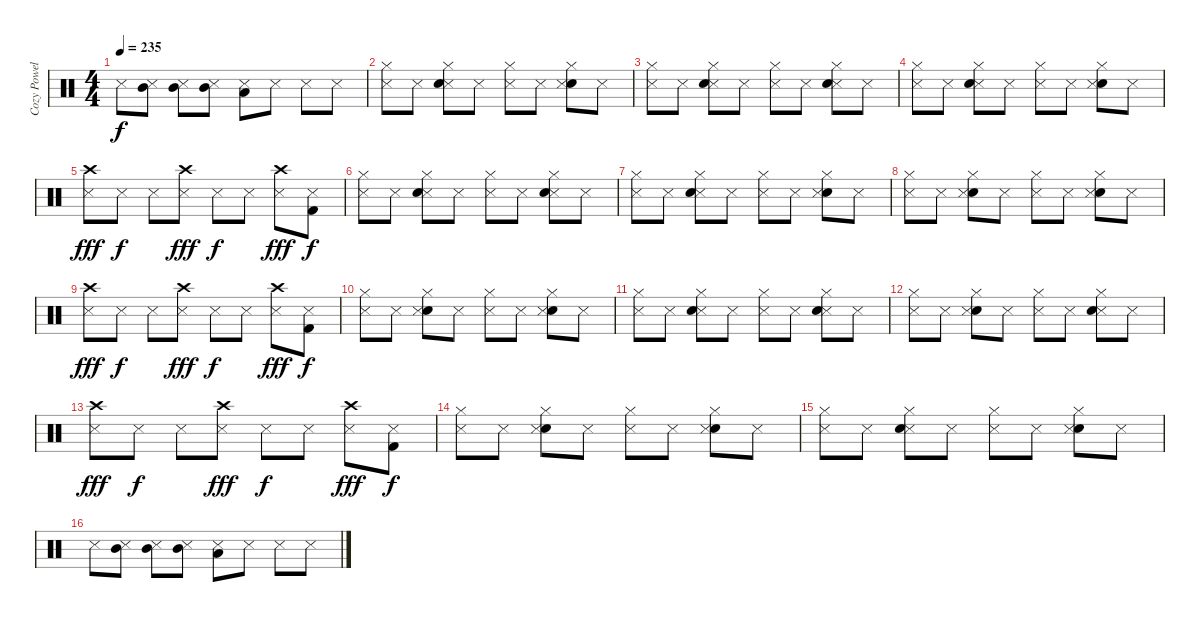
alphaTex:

\track ("Cozy Powell" "Cozy Powel") {instrument percussion}
\staff {score}
\articulation defaults
\ts (4 4)
\tempo 235
\clef neutral
\ks c "Metronome (hit)".8{dy f}
("Mid Tom (hit)" "Metronome (hit)").8 ("Metronome (hit)" "Mid Tom (hit)").8 ("Mid Tom (hit)" "Metronome (hit)").8 ("Metronome (hit)" "Low Tom (hit)").8 "Metronome (hit)".8 "Metronome (hit)".8 "Metronome (hit)".8 |
("Hi-Hat (closed)" "Metronome (hit)").8 "Metronome (hit)".8 ("Metronome (hit)" "Hi-Hat (closed)" "Electric Snare (hit)").8 "Metronome (hit)".8 ("Hi-Hat (closed)" "Metronome (hit)").8 "Metronome (hit)".8 ("Hi-Hat (closed)" "Electric Snare (hit)" "Metronome (hit)").8 "Metronome (hit)".8 |
("Metronome (hit)" "Hi-Hat (closed)").8 "Metronome (hit)".8 ("Hi-Hat (closed)" "Metronome (hit)" "Electric Snare (hit)").8 "Metronome (hit)".8 ("Metronome (hit)" "Hi-Hat (closed)").8 "Metronome (hit)".8 ("Metronome (hit)" "Hi-Hat (closed)" "Electric Snare (hit)").8 "Metronome (hit)".8 |
("Hi-Hat (closed)" "Metronome (hit)").8 "Metronome (hit)".8 ("Metronome (hit)" "Electric Snare (hit)" "Hi-Hat (closed)").8 "Metronome (hit)".8 ("Hi-Hat (closed)" "Metronome (hit)").8 "Metronome (hit)".8 ("Electric Snare (hit)" "Hi-Hat (closed)" "Metronome (hit)").8 "Metronome (hit)".8 |
("Crash high (hit)" "Metronome (hit)").8{dy fff} "Metronome (hit)".8{dy f} "Metronome (hit)".8 ("Metronome (hit)" "Crash high (hit)").8{dy fff} "Metronome (hit)".8{dy f} "Metronome (hit)".8 ("Metronome (hit)" "Crash high (hit)").8{dy fff} ("Kick (hit) 2" "Metronome (hit)").8{dy f} |
("Hi-Hat (closed)" "Metronome (hit)").8 "Metronome (hit)".8 ("Metronome (hit)" "Hi-Hat (closed)" "Electric Snare (hit)").8 "Metronome (hit)".8 ("Metronome (hit)" "Hi-Hat (closed)").8 "Metronome (hit)".8 ("Metronome (hit)" "Electric Snare (hit)" "Hi-Hat (closed)").8 "Metronome (hit)".8 |
("Hi-Hat (closed)" "Metronome (hit)").8 "Metronome (hit)".8 ("Hi-Hat (closed)" "Metronome (hit)" "Electric Snare (hit)").8 "Metronome (hit)".8 ("Hi-Hat (closed)" "Metronome (hit)").8 "Metronome (hit)".8 ("Hi-Hat (closed)" "Electric Snare (hit)" "Metronome (hit)").8 "Metronome (hit)".8 |
("Metronome (hit)" "Hi-Hat (closed)").8 "Metronome (hit)".8 ("Electric Snare (hit)" "Metronome (hit)" "Hi-Hat (closed)").8 "Metronome (hit)".8 ("Hi-Hat (closed)" "Metronome (hit)").8 "Metronome (hit)".8 ("Hi-Hat (closed)" "Electric Snare (hit)" "Metronome (hit)").8 "Metronome (hit)".8 |
("Crash high (hit)" "Metronome (hit)").8{dy fff} "Metronome (hit)".8{dy f} "Metronome (hit)".8 ("Metronome (hit)" "Crash high (hit)").8{dy fff} "Metronome (hit)".8{dy f} "Metronome (hit)".8 ("Metronome (hit)" "Crash high (hit)").8{dy fff} ("Kick (hit) 2" "Metronome (hit)").8{dy f} |
("Hi-Hat (closed)" "Metronome (hit)").8 "Metronome (hit)".8 ("Electric Snare (hit)" "Metronome (hit)" "Hi-Hat (closed)").8 "Metronome (hit)".8 ("Metronome (hit)" "Hi-Hat (closed)").8 "Metronome (hit)".8 ("Electric Snare (hit)" "Metronome (hit)" "Hi-Hat (closed)").8 "Metronome (hit)".8 |
("Metronome (hit)" "Hi-Hat (closed)").8 "Metronome (hit)".8 ("Metronome (hit)" "Electric Snare (hit)" "Hi-Hat (closed)").8 "Metronome (hit)".8 ("Metronome (hit)" "Hi-Hat (closed)").8 "Metronome (hit)".8 ("Hi-Hat (closed)" "Metronome (hit)" "Electric Snare (hit)").8 "Metronome (hit)".8 |
("Hi-Hat (closed)" "Metronome (hit)").8 "Metronome (hit)".8 ("Electric Snare (hit)" "Hi-Hat (closed)" "Metronome (hit)").8 "Metronome (hit)".8 ("Metronome (hit)" "Hi-Hat (closed)").8 "Metronome (hit)".8 ("Metronome (hit)" "Electric Snare (hit)" "Hi-Hat (closed)").8 "Metronome (hit)".8 |
("Crash high (hit)" "Metronome (hit)").8{dy fff} "Metronome (hit)".8{dy f} "Metronome (hit)".8 ("Metronome (hit)" "Crash high (hit)").8{dy fff} "Metronome (hit)".8{dy f} "Metronome (hit)".8 ("Metronome (hit)" "Crash high (hit)").8{dy fff} ("Metronome (hit)" "Kick (hit) 2").8{dy f} |
("Hi-Hat (closed)" "Metronome (hit)").8 "Metronome (hit)".8 ("Hi-Hat (closed)" "Electric Snare (hit)" "Metronome (hit)").8 "Metronome (hit)".8 ("Metronome (hit)" "Hi-Hat (closed)").8 "Metronome (hit)".8 ("Electric Snare (hit)" "Hi-Hat (closed)" "Metronome (hit)").8 "Metronome (hit)".8 |
("Hi-Hat (closed)" "Metronome (hit)").8 "Metronome (hit)".8 ("Hi-Hat (closed)" "Metronome (hit)" "Electric Snare (hit)").8 "Metronome (hit)".8 ("Hi-Hat (closed)" "Metronome (hit)").8 "Metronome (hit)".8 ("Hi-Hat (closed)" "Electric Snare (hit)" "Metronome (hit)").8 "Metronome (hit)".8 |
"Metronome (hit)".8 ("Mid Tom (hit)" "Metronome (hit)").8 ("Mid Tom (hit)" "Metronome (hit)").8 ("Metronome (hit)" "Mid Tom (hit)").8 ("Metronome (hit)" "Low Tom (hit)").8 "Metronome (hit)".8 "Metronome (hit)".8 "Metronome (hit)".8
